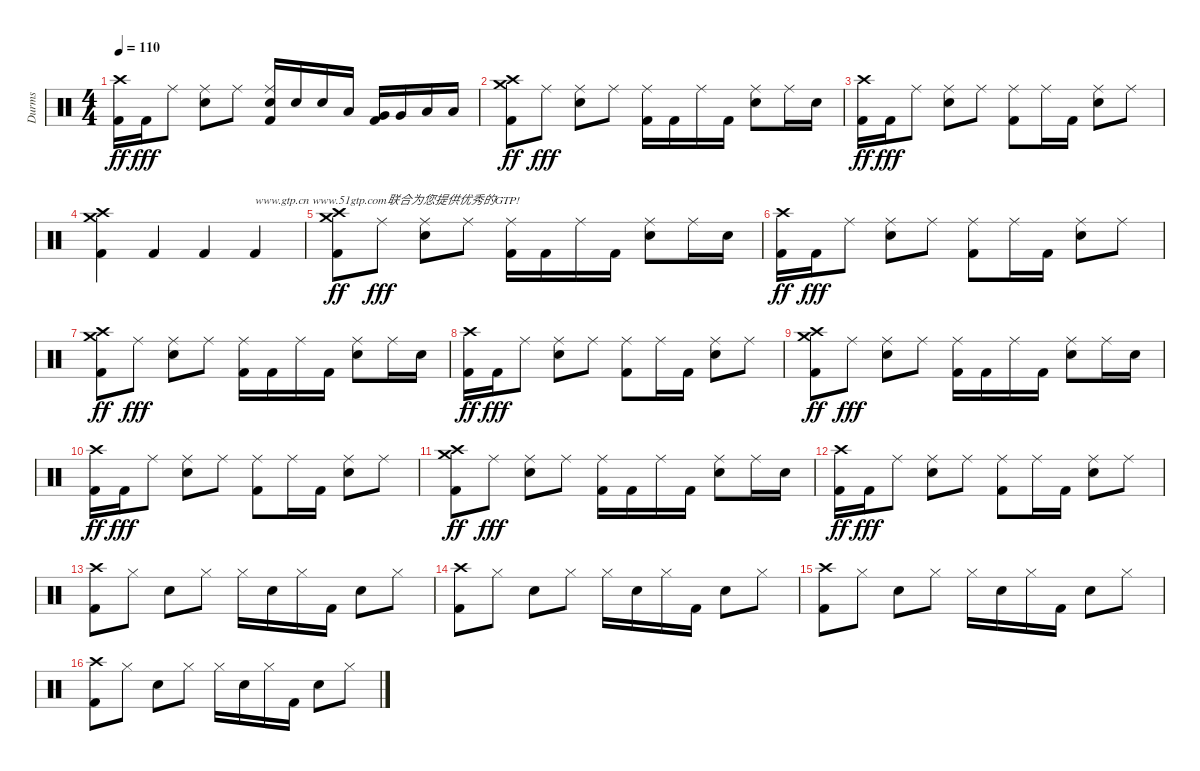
\track ("Durms" "Durms") {instrument percussion}
\staff {score}
\articulation defaults
\ts (4 4)
\tempo 110
\clef neutral
\ks c
("Crash high (hit)" "Kick (hit) 2").16{dy ff} "Kick (hit) 2".16{dy fff} "Ride (middle)".8 ("Ride (middle)" "Electric Snare (hit)").8 "Ride (middle)".8 ("Ride (middle)" "Electric Snare (hit)" "Kick (hit) 2").16 "Electric Snare (hit)".16 "Electric Snare (hit)".16 "Low Tom (hit)".16 ("Very Low Tom (hit)" "Kick (hit) 2").16 "Very Low Tom (hit)".16 "Low Floor Tom (hit)".16 "Low Floor Tom (hit)".16 |
("Crash medium (hit)" "Crash high (hit)" "Kick (hit) 2").8{dy ff} "Ride (middle)".8{dy fff} ("Ride (middle)" "Electric Snare (hit)").8 "Ride (middle)".8 ("Ride (middle)" "Kick (hit) 2").16 "Kick (hit) 2".16 "Ride (middle)".16 "Kick (hit) 2".16 ("Ride (middle)" "Electric Snare (hit)").8 "Ride (middle)".16 "Electric Snare (hit)".16 |
("Crash high (hit)" "Kick (hit) 2").16{dy ff} "Kick (hit) 2".16{dy fff} "Ride (middle)".8 ("Ride (middle)" "Electric Snare (hit)").8 "Ride (middle)".8 ("Ride (middle)" "Kick (hit) 2").8 "Ride (middle)".16 "Kick (hit) 2".16 ("Ride (middle)" "Electric Snare (hit)").8 "Ride (middle)".8 |
("Crash high (hit)" "Crash medium (hit)" "Kick (hit) 2").4 "Kick (hit) 2".4 "Kick (hit) 2".4 "Kick (hit) 2".4{txt "www.gtp.cn www.51gtp.com联合为您提供优秀的GTP!"} |
("Crash medium (hit)" "Crash high (hit)" "Kick (hit) 2").8{dy ff} "Ride (middle)".8{dy fff} ("Ride (middle)" "Electric Snare (hit)").8 "Ride (middle)".8 ("Ride (middle)" "Kick (hit) 2").16 "Kick (hit) 2".16 "Ride (middle)".16 "Kick (hit) 2".16 ("Ride (middle)" "Electric Snare (hit)").8 "Ride (middle)".16 "Electric Snare (hit)".16 |
("Crash high (hit)" "Kick (hit) 2").16{dy ff} "Kick (hit) 2".16{dy fff} "Ride (middle)".8 ("Ride (middle)" "Electric Snare (hit)").8 "Ride (middle)".8 ("Ride (middle)" "Kick (hit) 2").8 "Ride (middle)".16 "Kick (hit) 2".16 ("Ride (middle)" "Electric Snare (hit)").8 "Ride (middle)".8 |
("Crash medium (hit)" "Crash high (hit)" "Kick (hit) 2").8{dy ff} "Ride (middle)".8{dy fff} ("Ride (middle)" "Electric Snare (hit)").8 "Ride (middle)".8 ("Ride (middle)" "Kick (hit) 2").16 "Kick (hit) 2".16 "Ride (middle)".16 "Kick (hit) 2".16 ("Ride (middle)" "Electric Snare (hit)").8 "Ride (middle)".16 "Electric Snare (hit)".16 |
("Crash high (hit)" "Kick (hit) 2").16{dy ff} "Kick (hit) 2".16{dy fff} "Ride (middle)".8 ("Ride (middle)" "Electric Snare (hit)").8 "Ride (middle)".8 ("Ride (middle)" "Kick (hit) 2").8 "Ride (middle)".16 "Kick (hit) 2".16 ("Ride (middle)" "Electric Snare (hit)").8 "Ride (middle)".8 |
("Crash medium (hit)" "Crash high (hit)" "Kick (hit) 2").8{dy ff} "Ride (middle)".8{dy fff} ("Ride (middle)" "Electric Snare (hit)").8 "Ride (middle)".8 ("Ride (middle)" "Kick (hit) 2").16 "Kick (hit) 2".16 "Ride (middle)".16 "Kick (hit) 2".16 ("Ride (middle)" "Electric Snare (hit)").8 "Ride (middle)".16 "Electric Snare (hit)".16 |
("Crash high (hit)" "Kick (hit) 2").16{dy ff} "Kick (hit) 2".16{dy fff} "Ride (middle)".8 ("Ride (middle)" "Electric Snare (hit)").8 "Ride (middle)".8 ("Ride (middle)" "Kick (hit) 2").8 "Ride (middle)".16 "Kick (hit) 2".16 ("Ride (middle)" "Electric Snare (hit)").8 "Ride (middle)".8 |
("Crash medium (hit)" "Crash high (hit)" "Kick (hit) 2").8{dy ff} "Ride (middle)".8{dy fff} ("Ride (middle)" "Electric Snare (hit)").8 "Ride (middle)".8 ("Ride (middle)" "Kick (hit) 2").16 "Kick (hit) 2".16 "Ride (middle)".16 "Kick (hit) 2".16 ("Ride (middle)" "Electric Snare (hit)").8 "Ride (middle)".16 "Electric Snare (hit)".16 |
("Crash high (hit)" "Kick (hit) 2").16{dy ff} "Kick (hit) 2".16{dy fff} "Ride (middle)".8 ("Ride (middle)" "Electric Snare (hit)").8 "Ride (middle)".8 ("Ride (middle)" "Kick (hit) 2").8 "Ride (middle)".16 "Kick (hit) 2".16 ("Ride (middle)" "Electric Snare (hit)").8 "Ride (middle)".8 |
("Crash high (hit)" "Kick (hit) 2").8 "Hi-Hat (closed)".8 "Electric Snare (hit)".8 "Hi-Hat (closed)".8 "Hi-Hat (closed)".16 "Electric Snare (hit)".16 "Hi-Hat (closed)".16 "Kick (hit) 2".16 "Electric Snare (hit)".8 "Hi-Hat (closed)".8 |
("Crash high (hit)" "Kick (hit) 2").8 "Hi-Hat (closed)".8 "Electric Snare (hit)".8 "Hi-Hat (closed)".8 "Hi-Hat (closed)".16 "Electric Snare (hit)".16 "Hi-Hat (closed)".16 "Kick (hit) 2".16 "Electric Snare (hit)".8 "Hi-Hat (closed)".8 |
("Crash high (hit)" "Kick (hit) 2").8 "Hi-Hat (closed)".8 "Electric Snare (hit)".8 "Hi-Hat (closed)".8 "Hi-Hat (closed)".16 "Electric Snare (hit)".16 "Hi-Hat (closed)".16 "Kick (hit) 2".16 "Electric Snare (hit)".8 "Hi-Hat (closed)".8 |
("Crash high (hit)" "Kick (hit) 2").8 "Hi-Hat (closed)".8 "Electric Snare (hit)".8 "Hi-Hat (closed)".8 "Hi-Hat (closed)".16 "Electric Snare (hit)".16 "Hi-Hat (closed)".16 "Kick (hit) 2".16 "Electric Snare (hit)".8 "Hi-Hat (closed)".8
